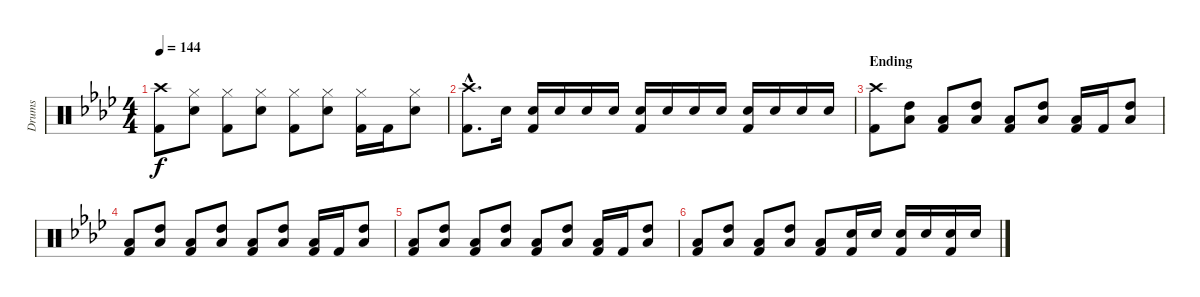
\track ("Drums" "Drums") {instrument percussion}
\staff {score}
\articulation defaults
\ts (4 4)
\tempo 144
\clef neutral
\ks ab
("Crash high (hit)" "Kick (hit) 2").8{dy f} ("Hi-Hat (closed)" "Snare (hit) 2").8 ("Hi-Hat (closed)" "Kick (hit) 2").8 ("Hi-Hat (closed)" "Snare (hit) 2").8 ("Hi-Hat (closed)" "Kick (hit) 2").8 ("Hi-Hat (closed)" "Snare (hit) 2").8 ("Hi-Hat (closed)" "Kick (hit) 2").16 "Kick (hit) 2".16 ("Hi-Hat (closed)" "Snare (hit) 2").8 |
("Crash high (hit)"{hac} "Kick (hit) 2"{hac}).8{d} "Snare (hit) 2".16 ("Snare (hit) 2" "Kick (hit) 2").16 "Snare (hit) 2".16 "Snare (hit) 2".16 "Snare (hit) 2".16 ("Snare (hit) 2" "Kick (hit) 2").16 "Snare (hit) 2".16 "Snare (hit) 2".16 "Snare (hit) 2".16 ("Snare (hit) 2" "Kick (hit) 2").16 "Snare (hit) 2".16 "Snare (hit) 2".16 "Snare (hit) 2".16 |
\section ("" "Ending")
("Crash high (hit)" "Kick (hit) 2").8 ("High Tom (hit)" "Low Tom (hit)").8 ("Low Tom (hit)" "Kick (hit) 2").8 ("High Tom (hit)" "Low Tom (hit)").8 ("Low Tom (hit)" "Kick (hit) 2").8 ("High Tom (hit)" "Low Tom (hit)").8 ("Low Tom (hit)" "Kick (hit) 2").16 "Kick (hit) 2".16 ("High Tom (hit)" "Low Tom (hit)").8 |
("Low Tom (hit)" "Kick (hit) 2").8 ("High Tom (hit)" "Low Tom (hit)").8 ("Low Tom (hit)" "Kick (hit) 2").8 ("High Tom (hit)" "Low Tom (hit)").8 ("Low Tom (hit)" "Kick (hit) 2").8 ("High Tom (hit)" "Low Tom (hit)").8 ("Low Tom (hit)" "Kick (hit) 2").16 "Kick (hit) 2".16 ("High Tom (hit)" "Low Tom (hit)").8 |
("Low Tom (hit)" "Kick (hit) 2").8 ("High Tom (hit)" "Low Tom (hit)").8 ("Low Tom (hit)" "Kick (hit) 2").8 ("High Tom (hit)" "Low Tom (hit)").8 ("Low Tom (hit)" "Kick (hit) 2").8 ("High Tom (hit)" "Low Tom (hit)").8 ("Low Tom (hit)" "Kick (hit) 2").16 "Kick (hit) 2".16 ("High Tom (hit)" "Low Tom (hit)").8 |
("Low Tom (hit)" "Kick (hit) 2").8 ("High Tom (hit)" "Low Tom (hit)").8 ("Low Tom (hit)" "Kick (hit) 2").8 ("High Tom (hit)" "Low Tom (hit)").8 ("Low Tom (hit)" "Kick (hit) 2").8 ("Snare (hit) 2" "Kick (hit) 2").16 "Snare (hit) 2".16 ("Snare (hit) 2" "Kick (hit) 2").16 "Snare (hit) 2".16 ("Snare (hit) 2" "Kick (hit) 2").16 "Snare (hit) 2".16
